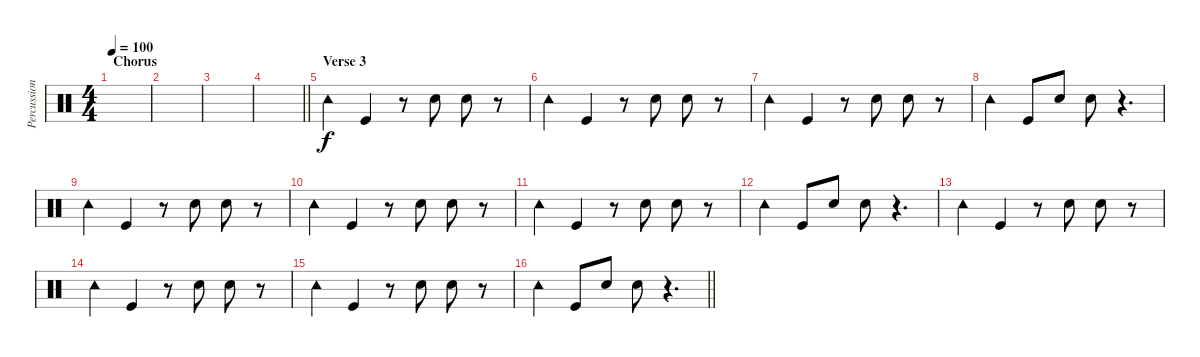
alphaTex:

\track ("Percussion" "Percussion") {instrument percussion}
\staff {score}
\articulation defaults
\ts (4 4)
\section ("" "Chorus")
\tempo 100
\clef neutral
\ks c
|
|
|
\barLineRight lightlight
|
\section ("" "Verse 3")
"Tambourine (hit)".4 "Kick (hit)".4 r.8 "Hand Clap (hit)".8 "Hand Clap (hit)".8 r.8 |
"Tambourine (hit)".4 "Kick (hit)".4 r.8 "Hand Clap (hit)".8 "Hand Clap (hit)".8 r.8 |
"Tambourine (hit)".4 "Kick (hit)".4 r.8 "Hand Clap (hit)".8 "Hand Clap (hit)".8 r.8 |
"Tambourine (hit)".4 "Kick (hit)".8 "Hand Clap (hit)".8 "Hand Clap (hit)".8 r.4{d} |
"Tambourine (hit)".4 "Kick (hit)".4 r.8 "Hand Clap (hit)".8 "Hand Clap (hit)".8 r.8 |
"Tambourine (hit)".4 "Kick (hit)".4 r.8 "Hand Clap (hit)".8 "Hand Clap (hit)".8 r.8 |
"Tambourine (hit)".4 "Kick (hit)".4 r.8 "Hand Clap (hit)".8 "Hand Clap (hit)".8 r.8 |
"Tambourine (hit)".4 "Kick (hit)".8 "Hand Clap (hit)".8 "Hand Clap (hit)".8 r.4{d} |
"Tambourine (hit)".4 "Kick (hit)".4 r.8 "Hand Clap (hit)".8 "Hand Clap (hit)".8 r.8 |
"Tambourine (hit)".4 "Kick (hit)".4 r.8 "Hand Clap (hit)".8 "Hand Clap (hit)".8 r.8 |
"Tambourine (hit)".4 "Kick (hit)".4 r.8 "Hand Clap (hit)".8 "Hand Clap (hit)".8 r.8 |
\barLineRight lightlight "Tambourine (hit)".4 "Kick (hit)".8 "Hand Clap (hit)".8 "Hand Clap (hit)".8
r.4{d}
